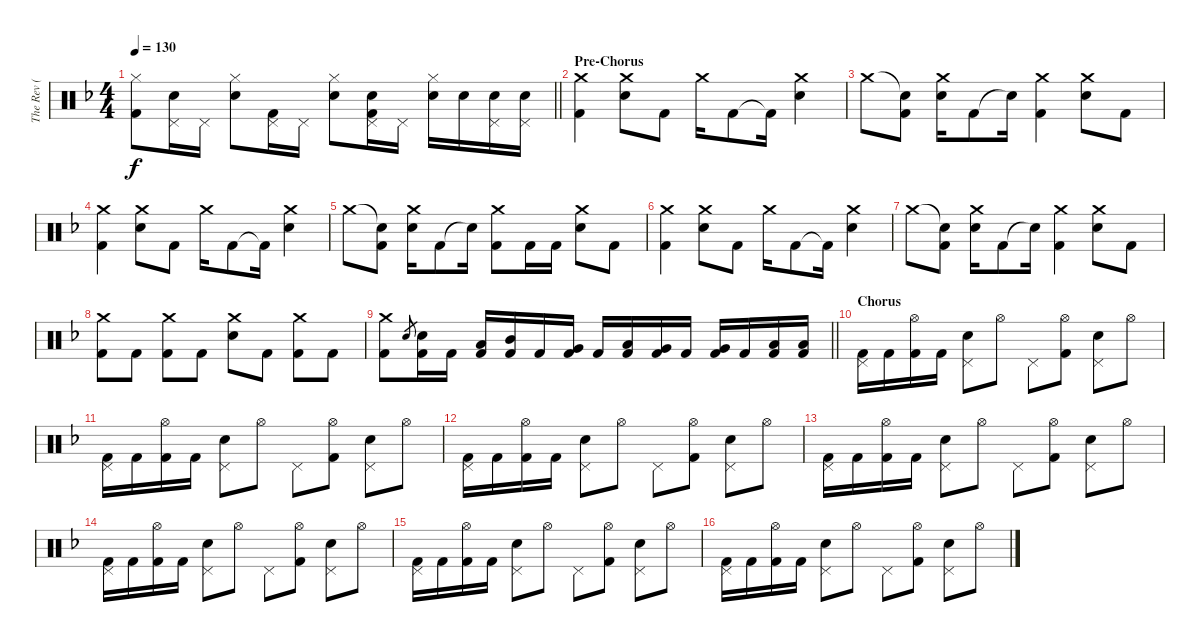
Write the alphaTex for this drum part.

\track ("The Rev ( Drums )" "The Rev ( ") {instrument percussion}
\staff {score}
\articulation defaults
\ts (4 4)
\tempo 130
\clef neutral
\barLineRight lightlight
\ks f
("Hi-Hat (closed)" "Kick (hit) 2").8{dy f} ("Pedal Hi-Hat (hit)" "Snare (hit) 2").16 "Pedal Hi-Hat (hit)".16 ("Hi-Hat (closed)" "Snare (hit) 2").8 ("Pedal Hi-Hat (hit)" "Kick (hit) 2").16 "Pedal Hi-Hat (hit)".16 ("Hi-Hat (closed)" "Snare (hit) 2").8 ("Pedal Hi-Hat (hit)" "Snare (hit) 2" "Kick (hit) 2").16 "Pedal Hi-Hat (hit)".16 ("Hi-Hat (closed)" "Snare (hit) 2").16 "Snare (hit) 2".16 ("Pedal Hi-Hat (hit)" "Snare (hit) 2").16 ("Pedal Hi-Hat (hit)" "Snare (hit) 2").16 |
\section ("" "Pre-Chorus")
("Crash medium (hit)" "Kick (hit) 2").4 ("Crash medium (hit)" "Snare (hit) 2").8 "Kick (hit) 2".8 "Crash medium (hit)".16 "Kick (hit) 2".8 "Kick (hit) 2"{t}.16 ("Crash medium (hit)" "Snare (hit) 2").4 |
"Crash medium (hit)".8 ("Snare (hit)"{t} "Kick (hit) 2").8 ("Crash medium (hit)" "Snare (hit) 2").16 "Kick (hit) 2".8 "Snare (hit)"{t}.16 ("Crash medium (hit)" "Kick (hit) 2").4 ("Crash medium (hit)" "Snare (hit) 2").8 "Kick (hit) 2".8 |
("Crash medium (hit)" "Kick (hit) 2").4 ("Crash medium (hit)" "Snare (hit) 2").8 "Kick (hit) 2".8 "Crash medium (hit)".16 "Kick (hit) 2".8 "Kick (hit) 2"{t}.16 ("Crash medium (hit)" "Snare (hit) 2").4 |
"Crash medium (hit)".8 ("Snare (hit)"{t} "Kick (hit) 2").8 ("Crash medium (hit)" "Snare (hit) 2").16 "Kick (hit) 2".8 "Snare (hit)"{t}.16 ("Crash medium (hit)" "Kick (hit) 2").8 "Kick (hit) 2".16 "Kick (hit) 2".16 ("Crash medium (hit)" "Snare (hit) 2").8 "Kick (hit) 2".8 |
("Crash medium (hit)" "Kick (hit) 2").4 ("Crash medium (hit)" "Snare (hit) 2").8 "Kick (hit) 2".8 "Crash medium (hit)".16 "Kick (hit) 2".8 "Kick (hit) 2"{t}.16 ("Crash medium (hit)" "Snare (hit) 2").4 |
"Crash medium (hit)".8 ("Snare (hit)"{t} "Kick (hit) 2").8 ("Crash medium (hit)" "Snare (hit) 2").16 "Kick (hit) 2".8 "Snare (hit)"{t}.16 ("Crash medium (hit)" "Kick (hit) 2").4 ("Crash medium (hit)" "Snare (hit) 2").8 "Kick (hit) 2".8 |
("Crash medium (hit)" "Kick (hit) 2").8 "Kick (hit) 2".8 ("Crash medium (hit)" "Kick (hit) 2").8 "Kick (hit) 2".8 ("Crash medium (hit)" "Snare (hit) 2").8 "Kick (hit) 2".8 ("Crash medium (hit)" "Kick (hit) 2").8 "Kick (hit) 2".8 |
\barLineRight lightlight
("Crash medium (hit)" "Kick (hit) 2").8 "Snare (hit) 2".8{gr} ("Snare (hit) 2" "Kick (hit) 2").16 "Kick (hit) 2".16 ("Low Tom (hit)" "Kick (hit) 2").16 ("Mid Tom (hit)" "Kick (hit) 2").16 "Kick (hit) 2".16 ("Very Low Tom (hit)" "Kick (hit) 2").16 "Kick (hit) 2".16 ("Low Floor Tom (hit)" "Kick (hit) 2").16 ("Very Low Tom (hit)" "Kick (hit) 2").16 "Kick (hit) 2".16 ("Very Low Tom (hit)" "Kick (hit) 2").16 "Kick (hit) 2".16 ("Low Floor Tom (hit)" "Kick (hit) 2").16 ("Low Floor Tom (hit)" "Kick (hit) 2").16 |
\section ("" "Chorus")
("Pedal Hi-Hat (hit)" "Kick (hit) 2").16 "Kick (hit) 2".16 ("Hi-Hat (open)" "Kick (hit) 2").16 "Kick (hit) 2".16 ("Pedal Hi-Hat (hit)" "Snare (hit) 2").8 "Hi-Hat (open)".8 "Pedal Hi-Hat (hit)".8 ("Hi-Hat (open)" "Kick (hit) 2").8 ("Pedal Hi-Hat (hit)" "Snare (hit) 2").8 "Hi-Hat (open)".8 |
("Pedal Hi-Hat (hit)" "Kick (hit) 2").16 "Kick (hit) 2".16 ("Hi-Hat (open)" "Kick (hit) 2").16 "Kick (hit) 2".16 ("Pedal Hi-Hat (hit)" "Snare (hit) 2").8 "Hi-Hat (open)".8 "Pedal Hi-Hat (hit)".8 ("Hi-Hat (open)" "Kick (hit) 2").8 ("Pedal Hi-Hat (hit)" "Snare (hit) 2").8 "Hi-Hat (open)".8 |
("Pedal Hi-Hat (hit)" "Kick (hit) 2").16 "Kick (hit) 2".16 ("Hi-Hat (open)" "Kick (hit) 2").16 "Kick (hit) 2".16 ("Pedal Hi-Hat (hit)" "Snare (hit) 2").8 "Hi-Hat (open)".8 "Pedal Hi-Hat (hit)".8 ("Hi-Hat (open)" "Kick (hit) 2").8 ("Pedal Hi-Hat (hit)" "Snare (hit) 2").8 "Hi-Hat (open)".8 |
("Pedal Hi-Hat (hit)" "Kick (hit) 2").16 "Kick (hit) 2".16 ("Hi-Hat (open)" "Kick (hit) 2").16 "Kick (hit) 2".16 ("Pedal Hi-Hat (hit)" "Snare (hit) 2").8 "Hi-Hat (open)".8 "Pedal Hi-Hat (hit)".8 ("Hi-Hat (open)" "Kick (hit) 2").8 ("Pedal Hi-Hat (hit)" "Snare (hit) 2").8 "Hi-Hat (open)".8 |
("Pedal Hi-Hat (hit)" "Kick (hit) 2").16 "Kick (hit) 2".16 ("Hi-Hat (open)" "Kick (hit) 2").16 "Kick (hit) 2".16 ("Pedal Hi-Hat (hit)" "Snare (hit) 2").8 "Hi-Hat (open)".8 "Pedal Hi-Hat (hit)".8 ("Hi-Hat (open)" "Kick (hit) 2").8 ("Pedal Hi-Hat (hit)" "Snare (hit) 2").8 "Hi-Hat (open)".8 |
("Pedal Hi-Hat (hit)" "Kick (hit) 2").16 "Kick (hit) 2".16 ("Hi-Hat (open)" "Kick (hit) 2").16 "Kick (hit) 2".16 ("Pedal Hi-Hat (hit)" "Snare (hit) 2").8 "Hi-Hat (open)".8 "Pedal Hi-Hat (hit)".8 ("Hi-Hat (open)" "Kick (hit) 2").8 ("Pedal Hi-Hat (hit)" "Snare (hit) 2").8 "Hi-Hat (open)".8 |
("Pedal Hi-Hat (hit)" "Kick (hit) 2").16 "Kick (hit) 2".16 ("Hi-Hat (open)" "Kick (hit) 2").16 "Kick (hit) 2".16 ("Pedal Hi-Hat (hit)" "Snare (hit) 2").8 "Hi-Hat (open)".8 "Pedal Hi-Hat (hit)".8 ("Hi-Hat (open)" "Kick (hit) 2").8 ("Pedal Hi-Hat (hit)" "Snare (hit) 2").8 "Hi-Hat (open)".8
